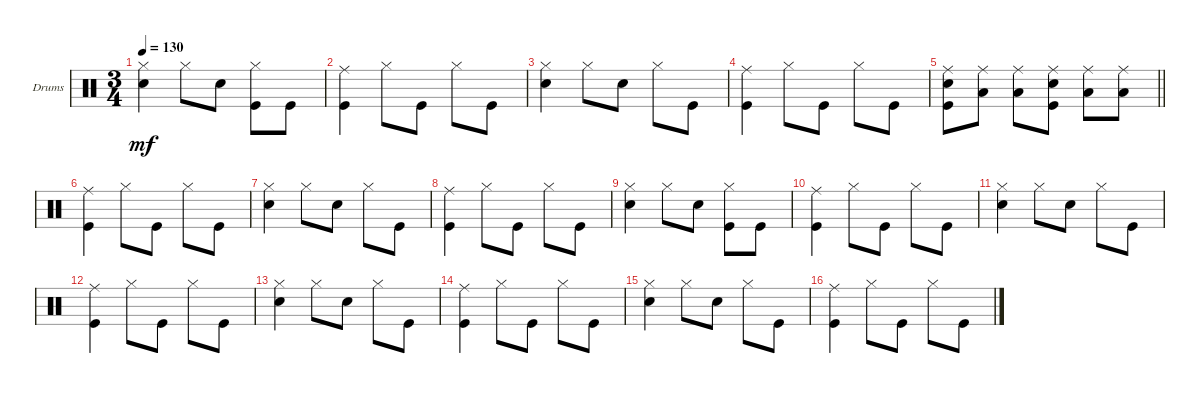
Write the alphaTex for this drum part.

\defaultSystemsLayout 4
\bracketExtendMode groupsimilarinstruments
\firstSystemTrackNameOrientation horizontal
\otherSystemsTrackNameOrientation horizontal
\chordDiagramsInScore
\track ("Drumkit" "Drums") {instrument percussion}
\staff {score}
\articulation defaults
\ts (3 4)
\tempo 130
\clef neutral
\ks c
("Hi-Hat (closed)" "Snare (hit) 2").4{dy mf} "Hi-Hat (closed)".8 "Snare (hit) 2".8 ("Kick (hit)" "Hi-Hat (closed)").8 "Kick (hit)".8 |
("Kick (hit)" "Ride (middle)").4 "Hi-Hat (closed)".8 "Kick (hit)".8 "Hi-Hat (closed)".8 "Kick (hit)".8 |
("Hi-Hat (closed)" "Snare (hit) 2").4 "Hi-Hat (closed)".8 "Snare (hit) 2".8 "Hi-Hat (closed)".8 "Kick (hit)".8 |
("Kick (hit)" "Ride (middle)").4 "Hi-Hat (closed)".8 "Kick (hit)".8 "Hi-Hat (closed)".8 "Kick (hit)".8 |
\barLineRight lightlight
("Snare (hit) 2" "Kick (hit)" "Ride (middle)").8 ("Ride (middle)" "Low Tom (hit)").8 ("Ride (middle)" "Low Tom (hit)").8 ("Kick (hit)" "Snare (hit) 2" "Ride (middle)").8 ("Ride (middle)" "Low Tom (hit)").8 ("Ride (middle)" "Low Tom (hit)").8 |
("Kick (hit)" "Ride (middle)").4 "Hi-Hat (closed)".8 "Kick (hit)".8 "Hi-Hat (closed)".8 "Kick (hit)".8 |
("Hi-Hat (closed)" "Snare (hit) 2").4 "Hi-Hat (closed)".8 "Snare (hit) 2".8 "Hi-Hat (closed)".8 "Kick (hit)".8 |
("Kick (hit)" "Ride (middle)").4 "Hi-Hat (closed)".8 "Kick (hit)".8 "Hi-Hat (closed)".8 "Kick (hit)".8 |
("Hi-Hat (closed)" "Snare (hit) 2").4 "Hi-Hat (closed)".8 "Snare (hit) 2".8 ("Kick (hit)" "Hi-Hat (closed)").8 "Kick (hit)".8 |
("Kick (hit)" "Ride (middle)").4 "Hi-Hat (closed)".8 "Kick (hit)".8 "Hi-Hat (closed)".8 "Kick (hit)".8 |
("Hi-Hat (closed)" "Snare (hit) 2").4 "Hi-Hat (closed)".8 "Snare (hit) 2".8 "Hi-Hat (closed)".8 "Kick (hit)".8 |
("Kick (hit)" "Ride (middle)").4 "Hi-Hat (closed)".8 "Kick (hit)".8 "Hi-Hat (closed)".8 "Kick (hit)".8 |
("Hi-Hat (closed)" "Snare (hit) 2").4 "Hi-Hat (closed)".8 "Snare (hit) 2".8 "Hi-Hat (closed)".8 "Kick (hit)".8 |
("Kick (hit)" "Ride (middle)").4 "Hi-Hat (closed)".8 "Kick (hit)".8 "Hi-Hat (closed)".8 "Kick (hit)".8 |
("Hi-Hat (closed)" "Snare (hit) 2").4 "Hi-Hat (closed)".8 "Snare (hit) 2".8 "Hi-Hat (closed)".8 "Kick (hit)".8 |
("Kick (hit)" "Ride (middle)").4 "Hi-Hat (closed)".8 "Kick (hit)".8 "Hi-Hat (closed)".8 "Kick (hit)".8
